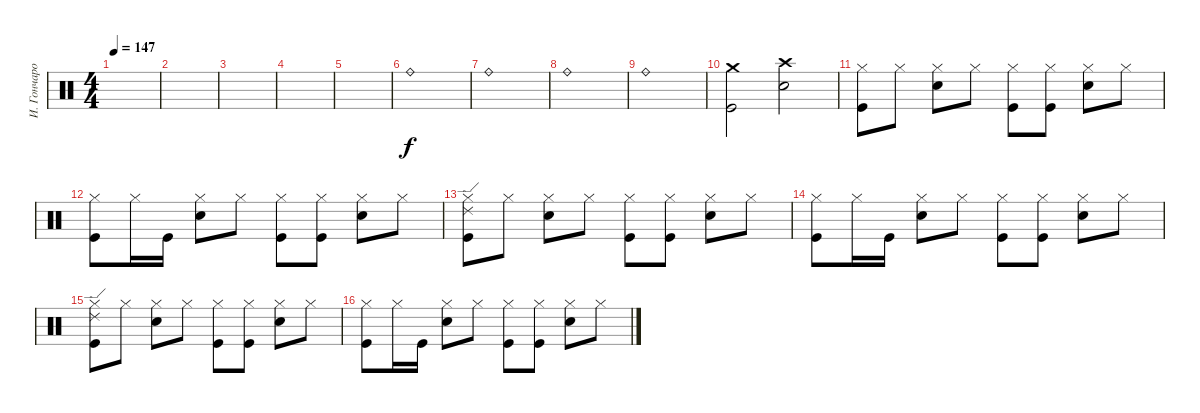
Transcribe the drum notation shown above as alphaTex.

\track ("И. Гончаров" "И. Гончаро") {instrument percussion}
\staff {score}
\articulation defaults
\ts (4 4)
\tempo 147
\clef neutral
\ks c
|
|
|
|
|
"Ride (bell)".1 |
"Ride (bell)".1 |
"Ride (bell)".1 |
"Ride (bell)".1 |
("Crash medium (hit)" "Kick (hit)").2 ("Crash high (hit)" "Snare (hit) 2").2 |
("Hi-Hat (closed)" "Kick (hit)").8 "Hi-Hat (closed)".8 ("Hi-Hat (closed)" "Snare (hit) 2").8 "Hi-Hat (closed)".8 ("Hi-Hat (closed)" "Kick (hit)").8 ("Hi-Hat (closed)" "Kick (hit)").8 ("Hi-Hat (closed)" "Snare (hit) 2").8 "Hi-Hat (closed)".8 |
("Hi-Hat (closed)" "Kick (hit)").8 "Hi-Hat (closed)".16 "Kick (hit)".16 ("Hi-Hat (closed)" "Snare (hit) 2").8 "Hi-Hat (closed)".8 ("Hi-Hat (closed)" "Kick (hit)").8 ("Hi-Hat (closed)" "Kick (hit)").8 ("Hi-Hat (closed)" "Snare (hit) 2").8 "Hi-Hat (closed)".8 |
("Ride (edge) 2" "Hi-Hat (closed)" "Kick (hit)").8 "Hi-Hat (closed)".8 ("Hi-Hat (closed)" "Snare (hit) 2").8 "Hi-Hat (closed)".8 ("Hi-Hat (closed)" "Kick (hit)").8 ("Hi-Hat (closed)" "Kick (hit)").8 ("Hi-Hat (closed)" "Snare (hit) 2").8 "Hi-Hat (closed)".8 |
("Hi-Hat (closed)" "Kick (hit)").8 "Hi-Hat (closed)".16 "Kick (hit)".16 ("Hi-Hat (closed)" "Snare (hit) 2").8 "Hi-Hat (closed)".8 ("Hi-Hat (closed)" "Kick (hit)").8 ("Hi-Hat (closed)" "Kick (hit)").8 ("Hi-Hat (closed)" "Snare (hit) 2").8 "Hi-Hat (closed)".8 |
("Ride (edge) 2" "Hi-Hat (closed)" "Kick (hit)").8 "Hi-Hat (closed)".8 ("Hi-Hat (closed)" "Snare (hit) 2").8 "Hi-Hat (closed)".8 ("Hi-Hat (closed)" "Kick (hit)").8 ("Hi-Hat (closed)" "Kick (hit)").8 ("Hi-Hat (closed)" "Snare (hit) 2").8 "Hi-Hat (closed)".8 |
("Hi-Hat (closed)" "Kick (hit)").8 "Hi-Hat (closed)".16 "Kick (hit)".16 ("Hi-Hat (closed)" "Snare (hit) 2").8 "Hi-Hat (closed)".8 ("Hi-Hat (closed)" "Kick (hit)").8 ("Hi-Hat (closed)" "Kick (hit)").8 ("Hi-Hat (closed)" "Snare (hit) 2").8 "Hi-Hat (closed)".8
